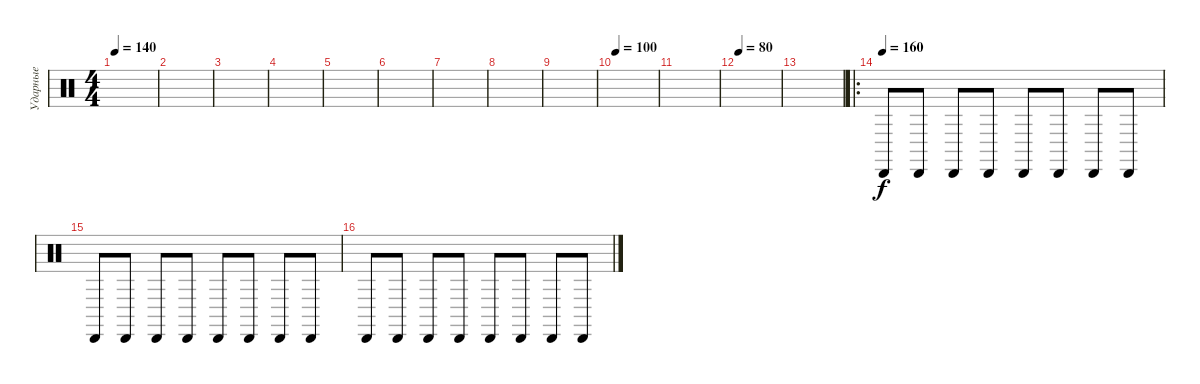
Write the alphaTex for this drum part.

\track ("Ударные" "Ударные") {instrument percussion}
\staff {score}
\articulation defaults
\ts (4 4)
\tempo 140
\clef neutral
\ks c
|
|
|
|
|
|
|
|
|
\tempo 100
|
|
\tempo 80
|
|
\ro
\tempo (160)
"Cabasa (hit)".8 "Cabasa (hit)".8 "Cabasa (hit)".8 "Cabasa (hit)".8 "Cabasa (hit)".8 "Cabasa (hit)".8 "Cabasa (hit)".8 "Cabasa (hit)".8 |
"Cabasa (hit)".8 "Cabasa (hit)".8 "Cabasa (hit)".8 "Cabasa (hit)".8 "Cabasa (hit)".8 "Cabasa (hit)".8 "Cabasa (hit)".8 "Cabasa (hit)".8 |
"Cabasa (hit)".8 "Cabasa (hit)".8 "Cabasa (hit)".8 "Cabasa (hit)".8 "Cabasa (hit)".8 "Cabasa (hit)".8 "Cabasa (hit)".8 "Cabasa (hit)".8
